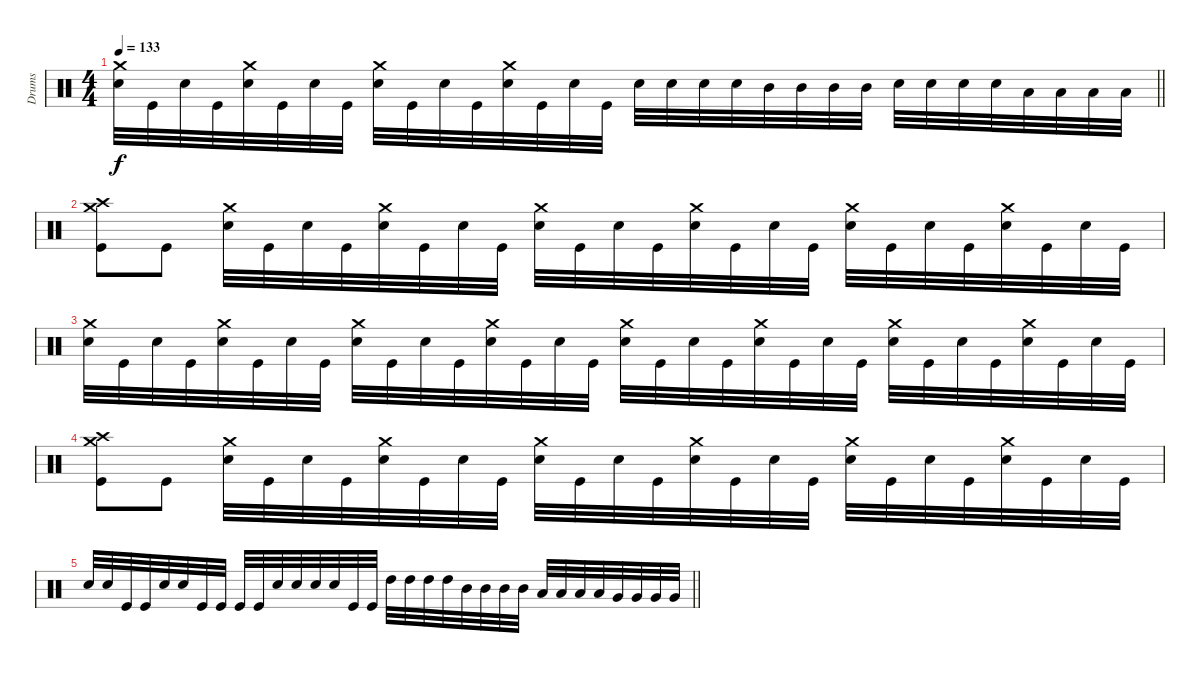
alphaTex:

\track ("Drums" "Drums") {instrument percussion}
\staff
\articulation defaults
\ts (4 4)
\tempo 133
\clef neutral
\barLineRight lightlight
\ks c
("Crash medium (hit)" "Electric Snare (hit)").32{dy f} "Kick (hit)".32 "Electric Snare (hit)".32 "Kick (hit)".32 ("Crash medium (hit)" "Electric Snare (hit)").32 "Kick (hit)".32 "Electric Snare (hit)".32 "Kick (hit)".32 ("Crash medium (hit)" "Electric Snare (hit)").32 "Kick (hit)".32 "Electric Snare (hit)".32 "Kick (hit)".32 ("Crash medium (hit)" "Electric Snare (hit)").32 "Kick (hit)".32 "Electric Snare (hit)".32 "Kick (hit)".32 "Electric Snare (hit)".32 "Electric Snare (hit)".32 "Electric Snare (hit)".32 "Electric Snare (hit)".32 "Mid Tom (hit)".32 "Mid Tom (hit)".32 "Mid Tom (hit)".32 "Mid Tom (hit)".32 "Electric Snare (hit)".32 "Electric Snare (hit)".32 "Electric Snare (hit)".32 "Electric Snare (hit)".32 "Low Tom (hit)".32 "Low Tom (hit)".32 "Low Tom (hit)".32 "Low Tom (hit)".32 |
("Crash high (hit)" "Crash medium (hit)" "Kick (hit)").8 "Kick (hit)".8 ("Crash medium (hit)" "Electric Snare (hit)").32 "Kick (hit)".32 "Electric Snare (hit)".32 "Kick (hit)".32 ("Crash medium (hit)" "Electric Snare (hit)").32 "Kick (hit)".32 "Electric Snare (hit)".32 "Kick (hit)".32 ("Crash medium (hit)" "Electric Snare (hit)").32 "Kick (hit)".32 "Electric Snare (hit)".32 "Kick (hit)".32 ("Crash medium (hit)" "Electric Snare (hit)").32 "Kick (hit)".32 "Electric Snare (hit)".32 "Kick (hit)".32 ("Crash medium (hit)" "Electric Snare (hit)").32 "Kick (hit)".32 "Electric Snare (hit)".32 "Kick (hit)".32 ("Crash medium (hit)" "Electric Snare (hit)").32 "Kick (hit)".32 "Electric Snare (hit)".32 "Kick (hit)".32 |
("Crash medium (hit)" "Electric Snare (hit)").32 "Kick (hit)".32 "Electric Snare (hit)".32 "Kick (hit)".32 ("Crash medium (hit)" "Electric Snare (hit)").32 "Kick (hit)".32 "Electric Snare (hit)".32 "Kick (hit)".32 ("Crash medium (hit)" "Electric Snare (hit)").32 "Kick (hit)".32 "Electric Snare (hit)".32 "Kick (hit)".32 ("Crash medium (hit)" "Electric Snare (hit)").32 "Kick (hit)".32 "Electric Snare (hit)".32 "Kick (hit)".32 ("Crash medium (hit)" "Electric Snare (hit)").32 "Kick (hit)".32 "Electric Snare (hit)".32 "Kick (hit)".32 ("Crash medium (hit)" "Electric Snare (hit)").32 "Kick (hit)".32 "Electric Snare (hit)".32 "Kick (hit)".32 ("Crash medium (hit)" "Electric Snare (hit)").32 "Kick (hit)".32 "Electric Snare (hit)".32 "Kick (hit)".32 ("Crash medium (hit)" "Electric Snare (hit)").32 "Kick (hit)".32 "Electric Snare (hit)".32 "Kick (hit)".32 |
("Crash high (hit)" "Crash medium (hit)" "Kick (hit)").8 "Kick (hit)".8 ("Crash medium (hit)" "Electric Snare (hit)").32 "Kick (hit)".32 "Electric Snare (hit)".32 "Kick (hit)".32 ("Crash medium (hit)" "Electric Snare (hit)").32 "Kick (hit)".32 "Electric Snare (hit)".32 "Kick (hit)".32 ("Crash medium (hit)" "Electric Snare (hit)").32 "Kick (hit)".32 "Electric Snare (hit)".32 "Kick (hit)".32 ("Crash medium (hit)" "Electric Snare (hit)").32 "Kick (hit)".32 "Electric Snare (hit)".32 "Kick (hit)".32 ("Crash medium (hit)" "Electric Snare (hit)").32 "Kick (hit)".32 "Electric Snare (hit)".32 "Kick (hit)".32 ("Crash medium (hit)" "Electric Snare (hit)").32 "Kick (hit)".32 "Electric Snare (hit)".32 "Kick (hit)".32 |
\barLineRight lightlight "Electric Snare (hit)".32 "Electric Snare (hit)".32 "Kick (hit)".32 "Kick (hit)".32 "Electric Snare (hit)".32 "Electric Snare (hit)".32 "Kick (hit)".32 "Kick (hit)".32 "Kick (hit)".32 "Kick (hit)".32 "Electric Snare (hit)".32 "Electric Snare (hit)".32 "Electric Snare (hit)".32 "Electric Snare (hit)".32 "Kick (hit)".32 "Kick (hit)".32 "High Tom (hit)".32 "High Tom (hit)".32 "High Tom (hit)".32 "High Tom (hit)".32 "Mid Tom (hit)".32 "Mid Tom (hit)".32 "Mid Tom (hit)".32 "Mid Tom (hit)".32 "Low Tom (hit)".32 "Low Tom (hit)".32 "Low Tom (hit)".32 "Low Tom (hit)".32 "Very Low Tom (hit)".32 "Very Low Tom (hit)".32 "Very Low Tom (hit)".32 "Very Low Tom (hit)".32
